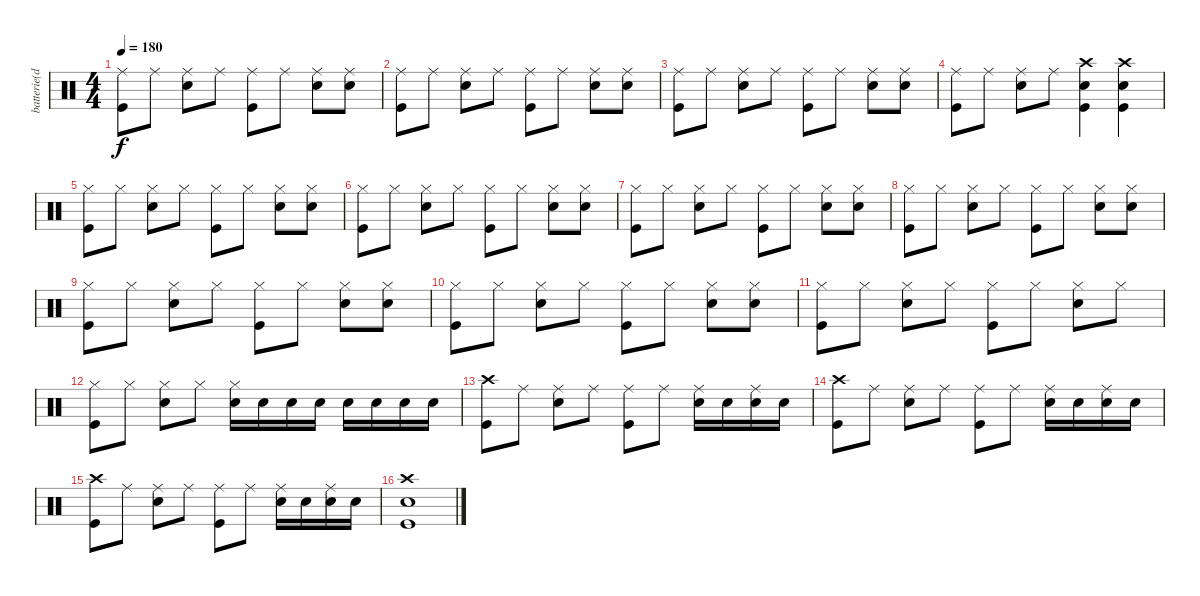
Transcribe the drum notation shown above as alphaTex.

\track ("batterie(dave)" "batterie(d") {instrument percussion}
\staff {score}
\articulation defaults
\ts (4 4)
\tempo 180
\clef neutral
\ks c
("Ride (middle)" "Kick (hit)").8{dy f} "Ride (middle)".8 ("Ride (middle)" "Snare (hit) 2").8 "Ride (middle)".8 ("Ride (middle)" "Kick (hit)").8 "Ride (middle)".8 ("Ride (middle)" "Snare (hit) 2").8 ("Ride (middle)" "Snare (hit) 2").8 |
("Ride (middle)" "Kick (hit)").8 "Ride (middle)".8 ("Ride (middle)" "Snare (hit) 2").8 "Ride (middle)".8 ("Ride (middle)" "Kick (hit)").8 "Ride (middle)".8 ("Ride (middle)" "Snare (hit) 2").8 ("Ride (middle)" "Snare (hit) 2").8 |
("Ride (middle)" "Kick (hit)").8 "Ride (middle)".8 ("Ride (middle)" "Snare (hit) 2").8 "Ride (middle)".8 ("Ride (middle)" "Kick (hit)").8 "Ride (middle)".8 ("Ride (middle)" "Snare (hit) 2").8 ("Ride (middle)" "Snare (hit) 2").8 |
("Ride (middle)" "Kick (hit)").8 "Ride (middle)".8 ("Ride (middle)" "Snare (hit) 2").8 "Ride (middle)".8 ("Crash high (hit)" "Snare (hit) 2" "Kick (hit)").4 ("Crash high (hit)" "Snare (hit) 2" "Kick (hit)").4 |
("Hi-Hat (closed)" "Kick (hit)").8 "Hi-Hat (closed)".8 ("Hi-Hat (closed)" "Snare (hit) 2").8 "Hi-Hat (closed)".8 ("Hi-Hat (closed)" "Kick (hit)").8 "Hi-Hat (closed)".8 ("Hi-Hat (closed)" "Snare (hit) 2").8 ("Hi-Hat (closed)" "Snare (hit) 2").8 |
("Hi-Hat (closed)" "Kick (hit)").8 "Hi-Hat (closed)".8 ("Hi-Hat (closed)" "Snare (hit) 2").8 "Hi-Hat (closed)".8 ("Hi-Hat (closed)" "Kick (hit)").8 "Hi-Hat (closed)".8 ("Hi-Hat (closed)" "Snare (hit) 2").8 ("Hi-Hat (closed)" "Snare (hit) 2").8 |
("Hi-Hat (closed)" "Kick (hit)").8 "Hi-Hat (closed)".8 ("Hi-Hat (closed)" "Snare (hit) 2").8 "Hi-Hat (closed)".8 ("Hi-Hat (closed)" "Kick (hit)").8 "Hi-Hat (closed)".8 ("Hi-Hat (closed)" "Snare (hit) 2").8 ("Hi-Hat (closed)" "Snare (hit) 2").8 |
("Hi-Hat (closed)" "Kick (hit)").8 "Hi-Hat (closed)".8 ("Hi-Hat (closed)" "Snare (hit) 2").8 "Hi-Hat (closed)".8 ("Hi-Hat (closed)" "Kick (hit)").8 "Hi-Hat (closed)".8 ("Hi-Hat (closed)" "Snare (hit) 2").8 ("Hi-Hat (closed)" "Snare (hit) 2").8 |
("Hi-Hat (closed)" "Kick (hit)").8 "Hi-Hat (closed)".8 ("Hi-Hat (closed)" "Snare (hit) 2").8 "Hi-Hat (closed)".8 ("Hi-Hat (closed)" "Kick (hit)").8 "Hi-Hat (closed)".8 ("Hi-Hat (closed)" "Snare (hit) 2").8 ("Hi-Hat (closed)" "Snare (hit) 2").8 |
("Hi-Hat (closed)" "Kick (hit)").8 "Hi-Hat (closed)".8 ("Hi-Hat (closed)" "Snare (hit) 2").8 "Hi-Hat (closed)".8 ("Hi-Hat (closed)" "Kick (hit)").8 "Hi-Hat (closed)".8 ("Hi-Hat (closed)" "Snare (hit) 2").8 ("Hi-Hat (closed)" "Snare (hit) 2").8 |
("Hi-Hat (closed)" "Kick (hit)").8 "Hi-Hat (closed)".8 ("Hi-Hat (closed)" "Snare (hit) 2").8 "Hi-Hat (closed)".8 ("Hi-Hat (closed)" "Kick (hit)").8 "Hi-Hat (closed)".8 ("Hi-Hat (closed)" "Snare (hit) 2").8 "Hi-Hat (closed)".8 |
("Hi-Hat (closed)" "Kick (hit)").8 "Hi-Hat (closed)".8 ("Hi-Hat (closed)" "Snare (hit) 2").8 "Hi-Hat (closed)".8 ("Hi-Hat (closed)" "Snare (hit) 2").16 "Snare (hit) 2".16 "Snare (hit) 2".16 "Snare (hit) 2".16 "Snare (hit) 2".16 "Snare (hit) 2".16 "Snare (hit) 2".16 "Snare (hit) 2".16 |
("Crash high (hit)" "Kick (hit)").8 "Ride (middle)".8 ("Ride (middle)" "Snare (hit) 2").8 "Ride (middle)".8 ("Ride (middle)" "Kick (hit)").8 "Ride (middle)".8 ("Ride (middle)" "Snare (hit) 2").16 "Snare (hit) 2".16 ("Ride (middle)" "Snare (hit) 2").16 "Snare (hit) 2".16 |
("Crash high (hit)" "Kick (hit)").8 "Ride (middle)".8 ("Ride (middle)" "Snare (hit) 2").8 "Ride (middle)".8 ("Ride (middle)" "Kick (hit)").8 "Ride (middle)".8 ("Ride (middle)" "Snare (hit) 2").16 "Snare (hit) 2".16 ("Ride (middle)" "Snare (hit) 2").16 "Snare (hit) 2".16 |
("Crash high (hit)" "Kick (hit)").8 "Ride (middle)".8 ("Ride (middle)" "Snare (hit) 2").8 "Ride (middle)".8 ("Ride (middle)" "Kick (hit)").8 "Ride (middle)".8 ("Ride (middle)" "Snare (hit) 2").16 "Snare (hit) 2".16 ("Ride (middle)" "Snare (hit) 2").16 "Snare (hit) 2".16 |
("Crash high (hit)" "Snare (hit) 2" "Kick (hit)").1
